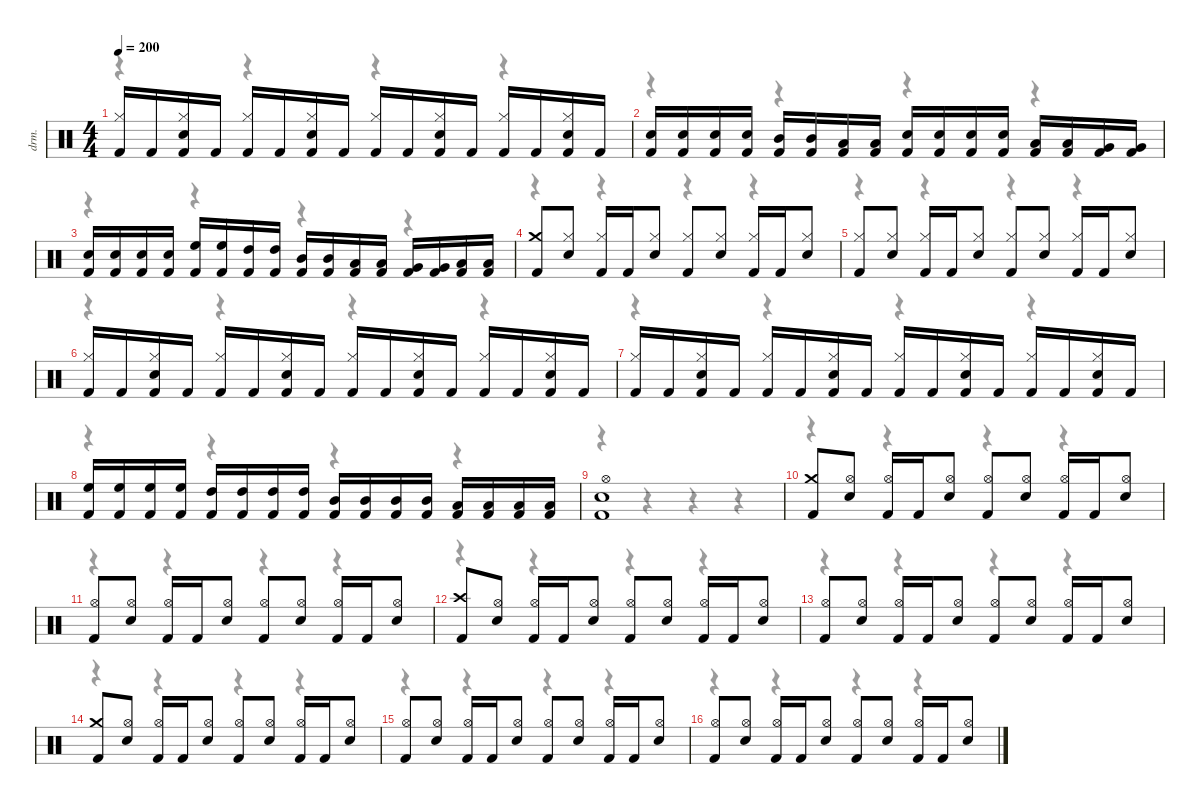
\hideDynamics
\bracketExtendMode nobrackets
\otherSystemsTrackNameOrientation horizontal
\track ("Drums" "drm.") {instrument percussion}
\staff {score}
\articulation defaults
\voice
\ts (4 4)
\scale
0.975432
\tempo 200
\accidentals auto
\clef neutral
\ottava regular
\simile none
\ks c
("Kick (hit) 2" "Hi-Hat (closed)").16{dy f} "Kick (hit) 2".16 ("Kick (hit) 2" "Snare (hit) 2" "Hi-Hat (closed)").16 "Kick (hit) 2".16 ("Kick (hit) 2" "Hi-Hat (closed)").16 "Kick (hit) 2".16 ("Kick (hit) 2" "Snare (hit) 2" "Hi-Hat (closed)").16 "Kick (hit) 2".16 ("Kick (hit) 2" "Hi-Hat (closed)").16 "Kick (hit) 2".16 ("Kick (hit) 2" "Snare (hit) 2" "Hi-Hat (closed)").16 "Kick (hit) 2".16 ("Kick (hit) 2" "Hi-Hat (closed)").16 "Kick (hit) 2".16 ("Kick (hit) 2" "Snare (hit) 2" "Hi-Hat (closed)").16 "Kick (hit) 2".16 |
\scale
0.990143 ("Kick (hit) 2" "Snare (hit) 2").16 ("Kick (hit) 2" "Snare (hit) 2").16 ("Kick (hit) 2" "Snare (hit) 2").16 ("Kick (hit) 2" "Snare (hit) 2").16 ("Kick (hit) 2" "Mid Tom (hit)").16 ("Kick (hit) 2" "Mid Tom (hit)").16 ("Kick (hit) 2" "Low Tom (hit)").16 ("Kick (hit) 2" "Low Tom (hit)").16 ("Kick (hit) 2" "Snare (hit) 2").16 ("Kick (hit) 2" "Snare (hit) 2").16 ("Kick (hit) 2" "Snare (hit) 2").16 ("Kick (hit) 2" "Snare (hit) 2").16 ("Kick (hit) 2" "Low Tom (hit)").16 ("Kick (hit) 2" "Low Tom (hit)").16 ("Kick (hit) 2" "Very Low Tom (hit)").16 ("Kick (hit) 2" "Very Low Tom (hit)").16 |
\scale
0.990143 ("Kick (hit) 2" "Snare (hit) 2").16 ("Kick (hit) 2" "Snare (hit) 2").16 ("Kick (hit) 2" "Snare (hit) 2").16 ("Kick (hit) 2" "Snare (hit) 2").16 ("Kick (hit) 2" "High Floor Tom (hit)").16 ("Kick (hit) 2" "High Floor Tom (hit)").16 ("Kick (hit) 2" "High Tom (hit)").16 ("Kick (hit) 2" "High Tom (hit)").16 ("Kick (hit) 2" "Mid Tom (hit)").16 ("Kick (hit) 2" "Mid Tom (hit)").16 ("Kick (hit) 2" "Low Tom (hit)").16 ("Kick (hit) 2" "Low Tom (hit)").16 ("Kick (hit) 2" "Very Low Tom (hit)").16 ("Kick (hit) 2" "Very Low Tom (hit)").16 ("Kick (hit) 2" "Low Floor Tom (hit)").16 ("Kick (hit) 2" "Low Floor Tom (hit)").16 |
\scale
0.975432 ("Kick (hit) 2" "Crash medium (hit)").8 ("Snare (hit) 2" "Hi-Hat (closed)").8 ("Kick (hit) 2" "Hi-Hat (closed)").16 "Kick (hit) 2".16 ("Snare (hit) 2" "Hi-Hat (closed)").8 ("Kick (hit) 2" "Hi-Hat (closed)").8 ("Snare (hit) 2" "Hi-Hat (closed)").8 ("Kick (hit) 2" "Hi-Hat (closed)").16 "Kick (hit) 2".16 ("Snare (hit) 2" "Hi-Hat (closed)").8 |
\scale
0.990143 ("Kick (hit) 2" "Hi-Hat (closed)").8 ("Snare (hit) 2" "Hi-Hat (closed)").8 ("Kick (hit) 2" "Hi-Hat (closed)").16 "Kick (hit) 2".16 ("Snare (hit) 2" "Hi-Hat (closed)").8 ("Kick (hit) 2" "Hi-Hat (closed)").8 ("Snare (hit) 2" "Hi-Hat (closed)").8 ("Kick (hit) 2" "Hi-Hat (closed)").16 "Kick (hit) 2".16 ("Snare (hit) 2" "Hi-Hat (closed)").8 |
\scale
1.08155 ("Kick (hit) 2" "Hi-Hat (closed)").16 "Kick (hit) 2".16 ("Kick (hit) 2" "Snare (hit) 2" "Hi-Hat (closed)").16 "Kick (hit) 2".16 ("Kick (hit) 2" "Hi-Hat (closed)").16 "Kick (hit) 2".16 ("Kick (hit) 2" "Snare (hit) 2" "Hi-Hat (closed)").16 "Kick (hit) 2".16 ("Kick (hit) 2" "Hi-Hat (closed)").16 "Kick (hit) 2".16 ("Kick (hit) 2" "Snare (hit) 2" "Hi-Hat (closed)").16 "Kick (hit) 2".16 ("Kick (hit) 2" "Hi-Hat (closed)").16 "Kick (hit) 2".16 ("Kick (hit) 2" "Snare (hit) 2" "Hi-Hat (closed)").16 "Kick (hit) 2".16 |
\scale
0.992988 ("Kick (hit) 2" "Hi-Hat (closed)").16 "Kick (hit) 2".16 ("Kick (hit) 2" "Snare (hit) 2" "Hi-Hat (closed)").16 "Kick (hit) 2".16 ("Kick (hit) 2" "Hi-Hat (closed)").16 "Kick (hit) 2".16 ("Kick (hit) 2" "Snare (hit) 2" "Hi-Hat (closed)").16 "Kick (hit) 2".16 ("Kick (hit) 2" "Hi-Hat (closed)").16 "Kick (hit) 2".16 ("Kick (hit) 2" "Snare (hit) 2" "Hi-Hat (closed)").16 "Kick (hit) 2".16 ("Kick (hit) 2" "Hi-Hat (closed)").16 "Kick (hit) 2".16 ("Kick (hit) 2" "Snare (hit) 2" "Hi-Hat (closed)").16 "Kick (hit) 2".16 |
\scale
0.978277 ("Kick (hit) 2" "High Floor Tom (hit)").16 ("Kick (hit) 2" "High Floor Tom (hit)").16 ("Kick (hit) 2" "High Floor Tom (hit)").16 ("Kick (hit) 2" "High Floor Tom (hit)").16 ("Kick (hit) 2" "High Tom (hit)").16 ("Kick (hit) 2" "High Tom (hit)").16 ("Kick (hit) 2" "High Tom (hit)").16 ("Kick (hit) 2" "High Tom (hit)").16 ("Kick (hit) 2" "Mid Tom (hit)").16 ("Kick (hit) 2" "Mid Tom (hit)").16 ("Kick (hit) 2" "Mid Tom (hit)").16 ("Kick (hit) 2" "Mid Tom (hit)").16 ("Kick (hit) 2" "Low Tom (hit)").16 ("Kick (hit) 2" "Low Tom (hit)").16 ("Kick (hit) 2" "Low Tom (hit)").16 ("Kick (hit) 2" "Low Tom (hit)").16 |
\scale
0.990634 ("Kick (hit) 2" "Snare (hit) 2" "Hi-Hat (open)").1 |
\section ("" "")
\scale
0.978277 ("Kick (hit) 2" "Crash medium (hit)").8 ("Snare (hit) 2" "Hi-Hat (open)").8 ("Kick (hit) 2" "Hi-Hat (open)").16 "Kick (hit) 2".16 ("Snare (hit) 2" "Hi-Hat (open)").8 ("Kick (hit) 2" "Hi-Hat (open)").8 ("Snare (hit) 2" "Hi-Hat (open)").8 ("Kick (hit) 2" "Hi-Hat (open)").16 "Kick (hit) 2".16 ("Snare (hit) 2" "Hi-Hat (open)").8 |
\scale
0.978277 ("Kick (hit) 2" "Hi-Hat (open)").8 ("Snare (hit) 2" "Hi-Hat (open)").8 ("Kick (hit) 2" "Hi-Hat (open)").16 "Kick (hit) 2".16 ("Snare (hit) 2" "Hi-Hat (open)").8 ("Kick (hit) 2" "Hi-Hat (open)").8 ("Snare (hit) 2" "Hi-Hat (open)").8 ("Kick (hit) 2" "Hi-Hat (open)").16 "Kick (hit) 2".16 ("Snare (hit) 2" "Hi-Hat (open)").8 |
\scale
1.06394 ("Kick (hit) 2" "Crash high (hit)").8 ("Snare (hit) 2" "Hi-Hat (open)").8 ("Kick (hit) 2" "Hi-Hat (open)").16 "Kick (hit) 2".16 ("Snare (hit) 2" "Hi-Hat (open)").8 ("Kick (hit) 2" "Hi-Hat (open)").8 ("Snare (hit) 2" "Hi-Hat (open)").8 ("Kick (hit) 2" "Hi-Hat (open)").16 "Kick (hit) 2".16 ("Snare (hit) 2" "Hi-Hat (open)").8 |
\scale
0.977884 ("Kick (hit) 2" "Hi-Hat (open)").8 ("Snare (hit) 2" "Hi-Hat (open)").8 ("Kick (hit) 2" "Hi-Hat (open)").16 "Kick (hit) 2".16 ("Snare (hit) 2" "Hi-Hat (open)").8 ("Kick (hit) 2" "Hi-Hat (open)").8 ("Snare (hit) 2" "Hi-Hat (open)").8 ("Kick (hit) 2" "Hi-Hat (open)").16 "Kick (hit) 2".16 ("Snare (hit) 2" "Hi-Hat (open)").8 |
\scale
0.990143 ("Kick (hit) 2" "Crash medium (hit)").8 ("Snare (hit) 2" "Hi-Hat (open)").8 ("Kick (hit) 2" "Hi-Hat (open)").16 "Kick (hit) 2".16 ("Snare (hit) 2" "Hi-Hat (open)").8 ("Kick (hit) 2" "Hi-Hat (open)").8 ("Snare (hit) 2" "Hi-Hat (open)").8 ("Kick (hit) 2" "Hi-Hat (open)").16 "Kick (hit) 2".16 ("Snare (hit) 2" "Hi-Hat (open)").8 |
\scale
0.990143 ("Kick (hit) 2" "Hi-Hat (open)").8 ("Snare (hit) 2" "Hi-Hat (open)").8 ("Kick (hit) 2" "Hi-Hat (open)").16 "Kick (hit) 2".16 ("Snare (hit) 2" "Hi-Hat (open)").8 ("Kick (hit) 2" "Hi-Hat (open)").8 ("Snare (hit) 2" "Hi-Hat (open)").8 ("Kick (hit) 2" "Hi-Hat (open)").16 "Kick (hit) 2".16 ("Snare (hit) 2" "Hi-Hat (open)").8 |
\scale
0.977884 ("Kick (hit) 2" "Hi-Hat (open)").8 ("Snare (hit) 2" "Hi-Hat (open)").8 ("Kick (hit) 2" "Hi-Hat (open)").16 "Kick (hit) 2".16 ("Snare (hit) 2" "Hi-Hat (open)").8 ("Kick (hit) 2" "Hi-Hat (open)").8 ("Snare (hit) 2" "Hi-Hat (open)").8 ("Kick (hit) 2" "Hi-Hat (open)").16 "Kick (hit) 2".16 ("Snare (hit) 2" "Hi-Hat (open)").8
\voice
\clef neutral
\ottava regular
\simile none
\ks c
r.4{dy mf} r.4 r.4 r.4 |
r.4 r.4 r.4 r.4 |
r.4 r.4 r.4 r.4 |
r.4 r.4 r.4 r.4 |
r.4 r.4 r.4 r.4 |
r.4 r.4 r.4 r.4 |
r.4 r.4 r.4 r.4 |
r.4 r.4 r.4 r.4 |
r.4 r.4 r.4 r.4 |
r.4 r.4 r.4 r.4 |
r.4 r.4 r.4 r.4 |
r.4 r.4 r.4 r.4 |
r.4 r.4 r.4 r.4 |
r.4 r.4 r.4 r.4 |
r.4 r.4 r.4 r.4 |
r.4 r.4 r.4 r.4
